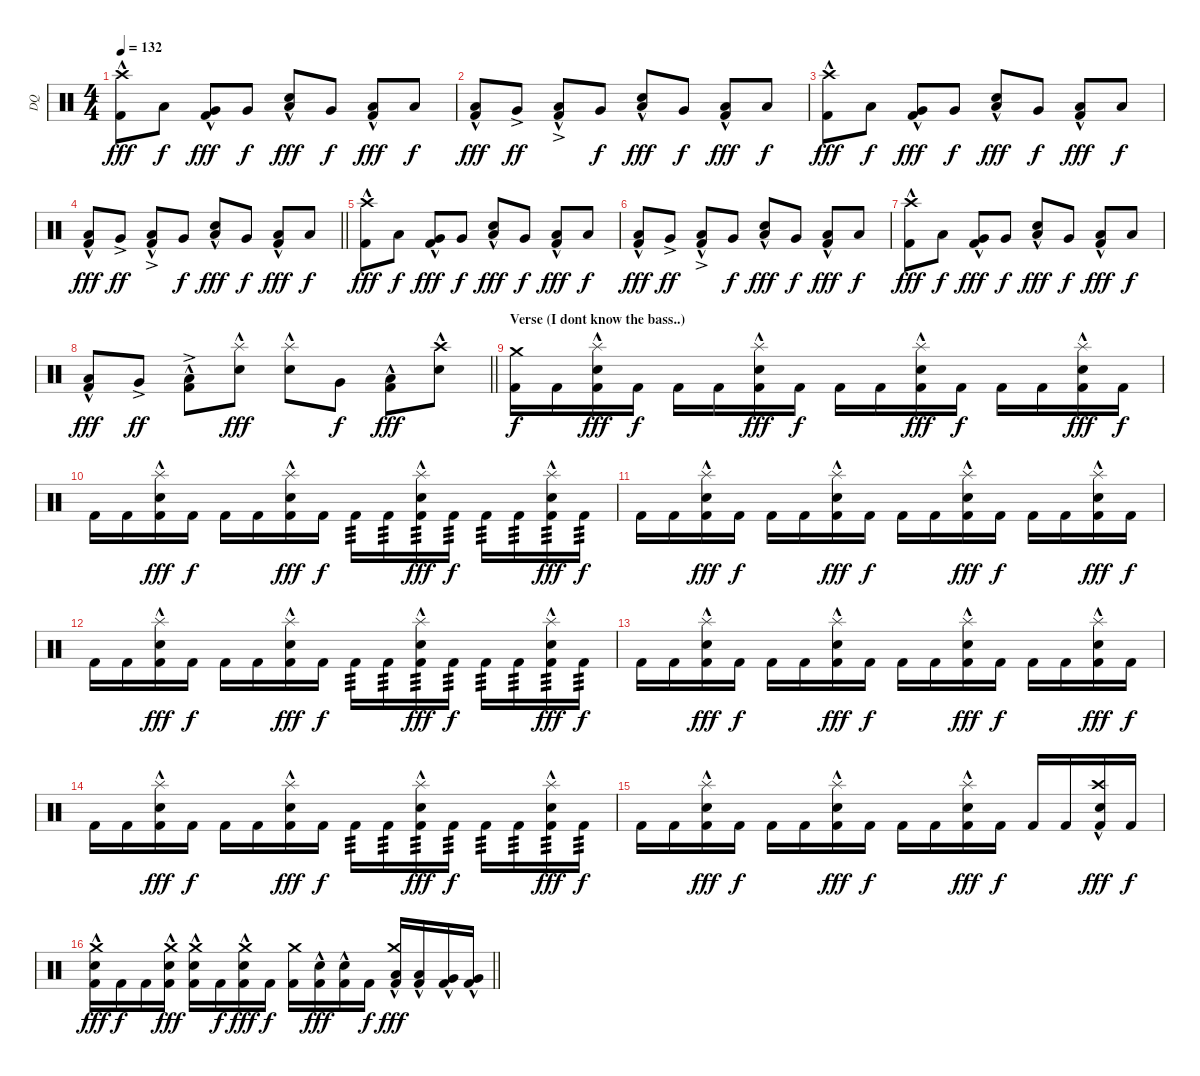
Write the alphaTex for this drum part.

\track ("DQ" "DQ") {instrument percussion}
\staff {score}
\articulation defaults
\ts (4 4)
\section ("" "")
\tempo 132
\clef neutral
\ks c
("Kick (hit) 2"{hac} "Crash high (hit)").8{dy fff} "Low Floor Tom (hit)".8{dy f} ("Kick (hit) 2"{hac} "Very Low Tom (hit)").8{dy fff} "Very Low Tom (hit)".8{dy f} ("Snare (hit) 2"{hac} "Low Floor Tom (hit)").8{dy fff} "Very Low Tom (hit)".8{dy f} ("Kick (hit) 2"{hac} "Low Floor Tom (hit)").8{dy fff} "Low Floor Tom (hit)".8{dy f} |
("Kick (hit) 2"{hac} "Low Floor Tom (hit)").8{dy fff} "Very Low Tom (hit)"{ac}.8{dy ff} ("Kick (hit) 2"{hac} "Low Floor Tom (hit)"{ac}).8 "Very Low Tom (hit)".8{dy f} ("Snare (hit) 2"{hac} "Low Floor Tom (hit)").8{dy fff} "Very Low Tom (hit)".8{dy f} ("Kick (hit) 2"{hac} "Low Floor Tom (hit)").8{dy fff} "Low Floor Tom (hit)".8{dy f} |
("Kick (hit) 2"{hac} "Crash high (hit)").8{dy fff} "Low Floor Tom (hit)".8{dy f} ("Kick (hit) 2"{hac} "Very Low Tom (hit)").8{dy fff} "Very Low Tom (hit)".8{dy f} ("Snare (hit) 2"{hac} "Low Floor Tom (hit)").8{dy fff} "Very Low Tom (hit)".8{dy f} ("Kick (hit) 2"{hac} "Low Floor Tom (hit)").8{dy fff} "Low Floor Tom (hit)".8{dy f} |
\barLineRight lightlight
("Kick (hit) 2"{hac} "Low Floor Tom (hit)").8{dy fff} "Very Low Tom (hit)"{ac}.8{dy ff} ("Kick (hit) 2"{hac} "Low Floor Tom (hit)"{ac}).8 "Very Low Tom (hit)".8{dy f} ("Snare (hit) 2"{hac} "Low Floor Tom (hit)").8{dy fff} "Very Low Tom (hit)".8{dy f} ("Kick (hit) 2"{hac} "Low Floor Tom (hit)").8{dy fff} "Low Floor Tom (hit)".8{dy f} |
("Kick (hit) 2"{hac} "Crash high (hit)").8{dy fff} "Low Floor Tom (hit)".8{dy f} ("Kick (hit) 2"{hac} "Very Low Tom (hit)").8{dy fff} "Very Low Tom (hit)".8{dy f} ("Snare (hit) 2"{hac} "Low Floor Tom (hit)").8{dy fff} "Very Low Tom (hit)".8{dy f} ("Kick (hit) 2"{hac} "Low Floor Tom (hit)").8{dy fff} "Low Floor Tom (hit)".8{dy f} |
("Kick (hit) 2"{hac} "Low Floor Tom (hit)").8{dy fff} "Very Low Tom (hit)"{ac}.8{dy ff} ("Kick (hit) 2"{hac} "Low Floor Tom (hit)"{ac}).8 "Very Low Tom (hit)".8{dy f} ("Snare (hit) 2"{hac} "Low Floor Tom (hit)").8{dy fff} "Very Low Tom (hit)".8{dy f} ("Kick (hit) 2"{hac} "Low Floor Tom (hit)").8{dy fff} "Low Floor Tom (hit)".8{dy f} |
("Kick (hit) 2"{hac} "Crash high (hit)").8{dy fff} "Low Floor Tom (hit)".8{dy f} ("Kick (hit) 2"{hac} "Very Low Tom (hit)").8{dy fff} "Very Low Tom (hit)".8{dy f} ("Snare (hit) 2"{hac} "Low Floor Tom (hit)").8{dy fff} "Very Low Tom (hit)".8{dy f} ("Kick (hit) 2"{hac} "Low Floor Tom (hit)").8{dy fff} "Low Floor Tom (hit)".8{dy f} |
\barLineRight lightlight
("Kick (hit) 2"{hac} "Low Floor Tom (hit)").8{dy fff} "Very Low Tom (hit)"{ac}.8{dy ff} ("Kick (hit) 2"{hac} "Low Floor Tom (hit)"{ac}).8 ("Snare (hit) 2"{hac} "Splash (hit)").8{dy fff} ("Snare (hit) 2"{hac} "Splash (hit)").8 "Very Low Tom (hit)".8{dy f} ("Kick (hit) 2"{hac} "Low Floor Tom (hit)").8{dy fff} ("Snare (hit) 2"{hac} "Crash high (hit)").8 |
\section ("" "Verse (I dont know the bass..)")
("Kick (hit) 2" "Crash medium (hit)").16{dy f} "Kick (hit) 2".16 ("Kick (hit) 2" "Snare (hit) 2"{hac} "Splash (hit)").16{dy fff} "Kick (hit) 2".16{dy f} "Kick (hit) 2".16 "Kick (hit) 2".16 ("Kick (hit) 2" "Snare (hit) 2"{hac} "Splash (hit)").16{dy fff} "Kick (hit) 2".16{dy f} "Kick (hit) 2".16 "Kick (hit) 2".16 ("Kick (hit) 2" "Snare (hit) 2"{hac} "Splash (hit)").16{dy fff} "Kick (hit) 2".16{dy f} "Kick (hit) 2".16 "Kick (hit) 2".16 ("Kick (hit) 2" "Snare (hit) 2"{hac} "Splash (hit)").16{dy fff} "Kick (hit) 2".16{dy f} |
"Kick (hit) 2".16 "Kick (hit) 2".16 ("Kick (hit) 2" "Snare (hit) 2"{hac} "Splash (hit)").16{dy fff} "Kick (hit) 2".16{dy f} "Kick (hit) 2".16 "Kick (hit) 2".16 ("Kick (hit) 2" "Snare (hit) 2"{hac} "Splash (hit)").16{dy fff} "Kick (hit) 2".16{dy f} "Kick (hit) 2".16{tp 3} "Kick (hit) 2".16{tp 3} ("Kick (hit) 2" "Snare (hit) 2"{hac} "Splash (hit)").16{tp 3 dy fff} "Kick (hit) 2".16{tp 3 dy f} "Kick (hit) 2".16{tp 3} "Kick (hit) 2".16{tp 3} ("Kick (hit) 2" "Snare (hit) 2"{hac} "Splash (hit)").16{tp 3 dy fff} "Kick (hit) 2".16{tp 3 dy f} |
"Kick (hit) 2".16 "Kick (hit) 2".16 ("Kick (hit) 2" "Snare (hit) 2"{hac} "Splash (hit)").16{dy fff} "Kick (hit) 2".16{dy f} "Kick (hit) 2".16 "Kick (hit) 2".16 ("Kick (hit) 2" "Snare (hit) 2"{hac} "Splash (hit)").16{dy fff} "Kick (hit) 2".16{dy f} "Kick (hit) 2".16 "Kick (hit) 2".16 ("Kick (hit) 2" "Snare (hit) 2"{hac} "Splash (hit)").16{dy fff} "Kick (hit) 2".16{dy f} "Kick (hit) 2".16 "Kick (hit) 2".16 ("Kick (hit) 2" "Snare (hit) 2"{hac} "Splash (hit)").16{dy fff} "Kick (hit) 2".16{dy f} |
"Kick (hit) 2".16 "Kick (hit) 2".16 ("Kick (hit) 2" "Snare (hit) 2"{hac} "Splash (hit)").16{dy fff} "Kick (hit) 2".16{dy f} "Kick (hit) 2".16 "Kick (hit) 2".16 ("Kick (hit) 2" "Snare (hit) 2"{hac} "Splash (hit)").16{dy fff} "Kick (hit) 2".16{dy f} "Kick (hit) 2".16{tp 3} "Kick (hit) 2".16{tp 3} ("Kick (hit) 2" "Snare (hit) 2"{hac} "Splash (hit)").16{tp 3 dy fff} "Kick (hit) 2".16{tp 3 dy f} "Kick (hit) 2".16{tp 3} "Kick (hit) 2".16{tp 3} ("Kick (hit) 2" "Snare (hit) 2"{hac} "Splash (hit)").16{tp 3 dy fff} "Kick (hit) 2".16{tp 3 dy f} |
"Kick (hit) 2".16 "Kick (hit) 2".16 ("Kick (hit) 2" "Snare (hit) 2"{hac} "Splash (hit)").16{dy fff} "Kick (hit) 2".16{dy f} "Kick (hit) 2".16 "Kick (hit) 2".16 ("Kick (hit) 2" "Snare (hit) 2"{hac} "Splash (hit)").16{dy fff} "Kick (hit) 2".16{dy f} "Kick (hit) 2".16 "Kick (hit) 2".16 ("Kick (hit) 2" "Snare (hit) 2"{hac} "Splash (hit)").16{dy fff} "Kick (hit) 2".16{dy f} "Kick (hit) 2".16 "Kick (hit) 2".16 ("Kick (hit) 2" "Snare (hit) 2"{hac} "Splash (hit)").16{dy fff} "Kick (hit) 2".16{dy f} |
"Kick (hit) 2".16 "Kick (hit) 2".16 ("Kick (hit) 2" "Snare (hit) 2"{hac} "Splash (hit)").16{dy fff} "Kick (hit) 2".16{dy f} "Kick (hit) 2".16 "Kick (hit) 2".16 ("Kick (hit) 2" "Snare (hit) 2"{hac} "Splash (hit)").16{dy fff} "Kick (hit) 2".16{dy f} "Kick (hit) 2".16{tp 3} "Kick (hit) 2".16{tp 3} ("Kick (hit) 2" "Snare (hit) 2"{hac} "Splash (hit)").16{tp 3 dy fff} "Kick (hit) 2".16{tp 3 dy f} "Kick (hit) 2".16{tp 3} "Kick (hit) 2".16{tp 3} ("Kick (hit) 2" "Snare (hit) 2"{hac} "Splash (hit)").16{tp 3 dy fff} "Kick (hit) 2".16{tp 3 dy f} |
"Kick (hit) 2".16 "Kick (hit) 2".16 ("Kick (hit) 2" "Snare (hit) 2"{hac} "Splash (hit)").16{dy fff} "Kick (hit) 2".16{dy f} "Kick (hit) 2".16 "Kick (hit) 2".16 ("Kick (hit) 2" "Snare (hit) 2"{hac} "Splash (hit)").16{dy fff} "Kick (hit) 2".16{dy f} "Kick (hit) 2".16 "Kick (hit) 2".16 ("Kick (hit) 2" "Snare (hit) 2"{hac} "Splash (hit)").16{dy fff} "Kick (hit) 2".16{dy f} "Kick (hit) 2".16 "Kick (hit) 2".16 ("Kick (hit) 2" "Snare (hit) 2"{hac} "Crash high (hit)").16{dy fff} "Kick (hit) 2".16{dy f} |
\barLineRight lightlight
("Kick (hit) 2" "Snare (hit) 2"{hac} "Crash medium (hit)").16{dy fff} "Kick (hit) 2".16{dy f} "Kick (hit) 2".16 ("Kick (hit) 2" "Snare (hit) 2"{hac} "Crash medium (hit)").16{dy fff} ("Kick (hit) 2" "Snare (hit) 2"{hac} "Crash medium (hit)").16 "Kick (hit) 2".16{dy f} ("Kick (hit) 2" "Snare (hit) 2"{hac} "Crash medium (hit)").16{dy fff} "Kick (hit) 2".16{dy f} ("Kick (hit) 2" "Crash medium (hit)").16 ("Kick (hit) 2" "Snare (hit) 2"{hac}).16{dy fff} ("Kick (hit) 2" "Snare (hit) 2"{hac}).16 "Kick (hit) 2".16{dy f} ("Kick (hit) 2" "Low Tom (hit)"{hac} "Crash medium (hit)").16{dy fff} ("Kick (hit) 2" "Low Tom (hit)"{hac}).16 ("Kick (hit) 2" "Very Low Tom (hit)"{hac}).16 ("Kick (hit) 2" "Very Low Tom (hit)"{hac}).16
